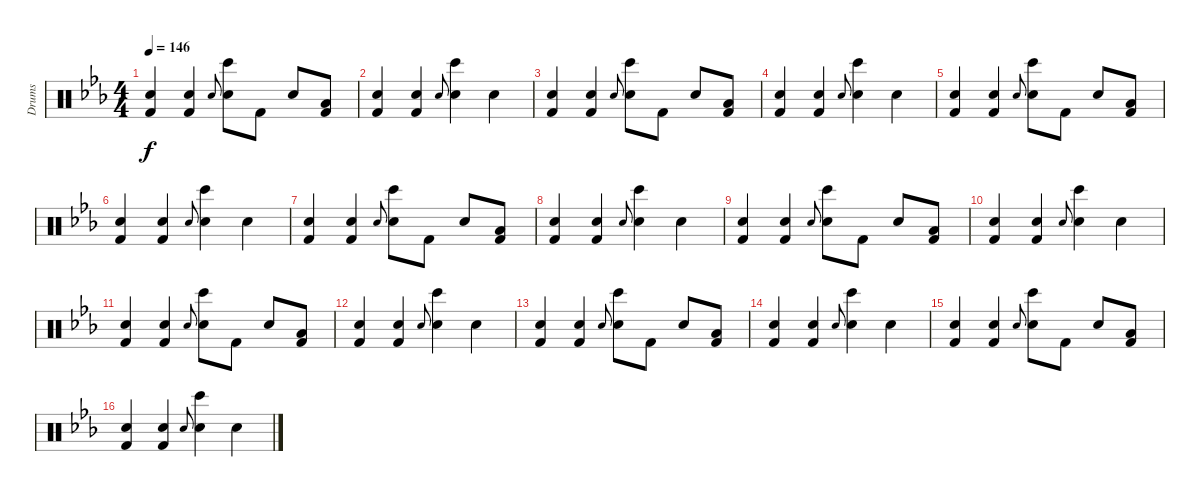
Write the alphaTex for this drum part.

\track ("Drums" "Drums") {instrument percussion}
\staff {score}
\articulation defaults
\ts (4 4)
\tempo 146
\clef neutral
\ks cminor
("Hand Clap (hit)" "Kick (hit) 2").4{dy f} ("Hand Clap (hit)" "Kick (hit) 2").4 "Electric Snare (hit)".8{gr onbeat} ("Hand Clap (hit)" "Bongo High (hit)").8 "Kick (hit) 2".8 "Hand Clap (hit)".8 ("Low Floor Tom (hit)" "Kick (hit) 2").8 |
("Hand Clap (hit)" "Kick (hit) 2").4 ("Hand Clap (hit)" "Kick (hit) 2").4 "Electric Snare (hit)".8{gr onbeat} ("Hand Clap (hit)" "Bongo High (hit)").4 "Hand Clap (hit)".4 |
("Hand Clap (hit)" "Kick (hit) 2").4 ("Hand Clap (hit)" "Kick (hit) 2").4 "Electric Snare (hit)".8{gr onbeat} ("Hand Clap (hit)" "Bongo High (hit)").8 "Kick (hit) 2".8 "Hand Clap (hit)".8 ("Low Floor Tom (hit)" "Kick (hit) 2").8 |
("Hand Clap (hit)" "Kick (hit) 2").4 ("Hand Clap (hit)" "Kick (hit) 2").4 "Electric Snare (hit)".8{gr onbeat} ("Hand Clap (hit)" "Bongo High (hit)").4 "Hand Clap (hit)".4 |
("Hand Clap (hit)" "Kick (hit) 2").4 ("Hand Clap (hit)" "Kick (hit) 2").4 "Electric Snare (hit)".8{gr onbeat} ("Hand Clap (hit)" "Bongo High (hit)").8 "Kick (hit) 2".8 "Hand Clap (hit)".8 ("Low Floor Tom (hit)" "Kick (hit) 2").8 |
("Hand Clap (hit)" "Kick (hit) 2").4 ("Hand Clap (hit)" "Kick (hit) 2").4 "Electric Snare (hit)".8{gr onbeat} ("Hand Clap (hit)" "Bongo High (hit)").4 "Hand Clap (hit)".4 |
("Hand Clap (hit)" "Kick (hit) 2").4 ("Hand Clap (hit)" "Kick (hit) 2").4 "Electric Snare (hit)".8{gr onbeat} ("Hand Clap (hit)" "Bongo High (hit)").8 "Kick (hit) 2".8 "Hand Clap (hit)".8 ("Low Floor Tom (hit)" "Kick (hit) 2").8 |
("Hand Clap (hit)" "Kick (hit) 2").4 ("Hand Clap (hit)" "Kick (hit) 2").4 "Electric Snare (hit)".8{gr onbeat} ("Hand Clap (hit)" "Bongo High (hit)").4 "Hand Clap (hit)".4 |
("Hand Clap (hit)" "Kick (hit) 2").4 ("Hand Clap (hit)" "Kick (hit) 2").4 "Electric Snare (hit)".8{gr onbeat} ("Hand Clap (hit)" "Bongo High (hit)").8 "Kick (hit) 2".8 "Hand Clap (hit)".8 ("Low Floor Tom (hit)" "Kick (hit) 2").8 |
("Hand Clap (hit)" "Kick (hit) 2").4 ("Hand Clap (hit)" "Kick (hit) 2").4 "Electric Snare (hit)".8{gr onbeat} ("Hand Clap (hit)" "Bongo High (hit)").4 "Hand Clap (hit)".4 |
("Hand Clap (hit)" "Kick (hit) 2").4 ("Hand Clap (hit)" "Kick (hit) 2").4 "Electric Snare (hit)".8{gr onbeat} ("Hand Clap (hit)" "Bongo High (hit)").8 "Kick (hit) 2".8 "Hand Clap (hit)".8 ("Low Floor Tom (hit)" "Kick (hit) 2").8 |
("Hand Clap (hit)" "Kick (hit) 2").4 ("Hand Clap (hit)" "Kick (hit) 2").4 "Electric Snare (hit)".8{gr onbeat} ("Hand Clap (hit)" "Bongo High (hit)").4 "Hand Clap (hit)".4 |
("Hand Clap (hit)" "Kick (hit) 2").4 ("Hand Clap (hit)" "Kick (hit) 2").4 "Electric Snare (hit)".8{gr onbeat} ("Hand Clap (hit)" "Bongo High (hit)").8 "Kick (hit) 2".8 "Hand Clap (hit)".8 ("Low Floor Tom (hit)" "Kick (hit) 2").8 |
("Hand Clap (hit)" "Kick (hit) 2").4 ("Hand Clap (hit)" "Kick (hit) 2").4 "Electric Snare (hit)".8{gr onbeat} ("Hand Clap (hit)" "Bongo High (hit)").4 "Hand Clap (hit)".4 |
("Hand Clap (hit)" "Kick (hit) 2").4 ("Hand Clap (hit)" "Kick (hit) 2").4 "Electric Snare (hit)".8{gr onbeat} ("Hand Clap (hit)" "Bongo High (hit)").8 "Kick (hit) 2".8 "Hand Clap (hit)".8 ("Low Floor Tom (hit)" "Kick (hit) 2").8 |
("Hand Clap (hit)" "Kick (hit) 2").4 ("Hand Clap (hit)" "Kick (hit) 2").4 "Electric Snare (hit)".8{gr onbeat} ("Hand Clap (hit)" "Bongo High (hit)").4 "Hand Clap (hit)".4
